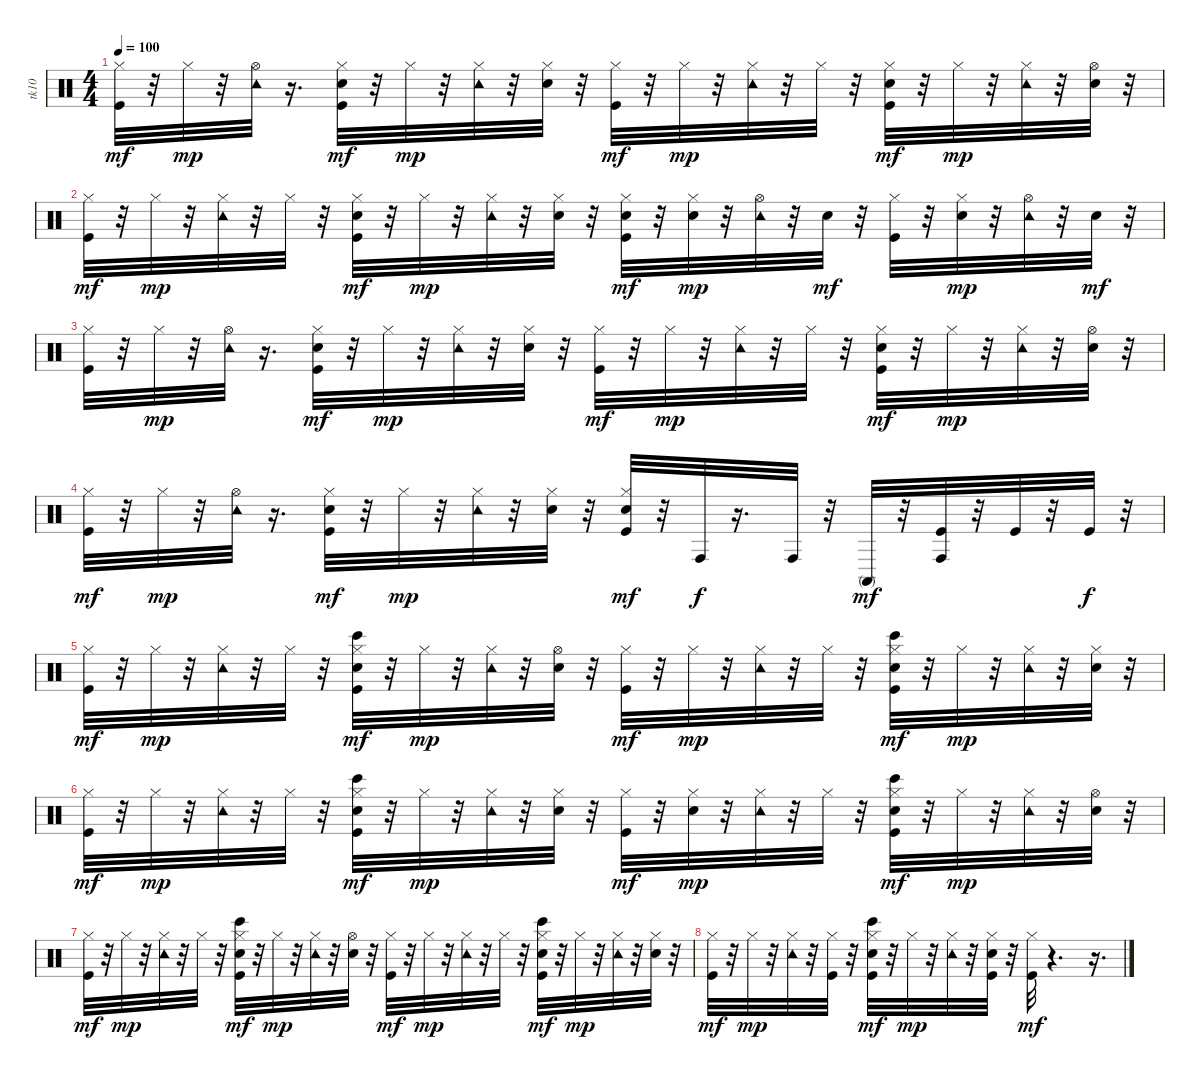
\track ("tk10" "tk10") {instrument percussion}
\staff {score}
\articulation defaults
\ts (4 4)
\tempo 100
\clef neutral
\ks c
("Kick (hit)" "Hi-Hat (closed)").32{dy mf} r.32 "Hi-Hat (closed)".32{dy mp} r.32 ("Hi-Hat (open)" "Tambourine (hit)").32 r.16{d} ("Kick (hit)" "Snare (hit) 2" "Hi-Hat (closed)").32{dy mf} r.32 "Hi-Hat (closed)".32{dy mp} r.32 ("Hi-Hat (closed)" "Tambourine (hit)").32 r.32 ("Snare (hit) 2" "Hi-Hat (closed)").32 r.32 ("Kick (hit)" "Hi-Hat (closed)").32{dy mf} r.32 "Hi-Hat (closed)".32{dy mp} r.32 ("Hi-Hat (closed)" "Tambourine (hit)").32 r.32 "Hi-Hat (closed)".32 r.32 ("Kick (hit)" "Snare (hit) 2" "Hi-Hat (closed)").32{dy mf} r.32 "Hi-Hat (closed)".32{dy mp} r.32 ("Hi-Hat (closed)" "Tambourine (hit)").32 r.32 ("Snare (hit) 2" "Hi-Hat (open)").32 r.32 |
("Kick (hit)" "Hi-Hat (closed)").32{dy mf} r.32 "Hi-Hat (closed)".32{dy mp} r.32 ("Hi-Hat (closed)" "Tambourine (hit)").32 r.32 "Hi-Hat (closed)".32 r.32 ("Kick (hit)" "Snare (hit) 2" "Hi-Hat (closed)").32{dy mf} r.32 "Hi-Hat (closed)".32{dy mp} r.32 ("Hi-Hat (closed)" "Tambourine (hit)").32 r.32 ("Snare (hit) 2" "Hi-Hat (closed)").32 r.32 ("Kick (hit)" "Snare (hit) 2" "Hi-Hat (closed)").32{dy mf} r.32 ("Snare (hit) 2" "Hi-Hat (closed)").32{dy mp} r.32 ("Hi-Hat (open)" "Tambourine (hit)").32 r.32 "Snare (hit) 2".32{dy mf} r.32 ("Kick (hit)" "Hi-Hat (closed)").32 r.32 ("Snare (hit) 2" "Hi-Hat (closed)").32{dy mp} r.32 ("Hi-Hat (open)" "Tambourine (hit)").32 r.32 "Snare (hit) 2".32{dy mf} r.32 |
("Kick (hit)" "Hi-Hat (closed)").32 r.32 "Hi-Hat (closed)".32{dy mp} r.32 ("Hi-Hat (open)" "Tambourine (hit)").32 r.16{d} ("Kick (hit)" "Snare (hit) 2" "Hi-Hat (closed)").32{dy mf} r.32 "Hi-Hat (closed)".32{dy mp} r.32 ("Hi-Hat (closed)" "Tambourine (hit)").32 r.32 ("Snare (hit) 2" "Hi-Hat (closed)").32 r.32 ("Kick (hit)" "Hi-Hat (closed)").32{dy mf} r.32 "Hi-Hat (closed)".32{dy mp} r.32 ("Hi-Hat (closed)" "Tambourine (hit)").32 r.32 "Hi-Hat (closed)".32 r.32 ("Kick (hit)" "Snare (hit) 2" "Hi-Hat (closed)").32{dy mf} r.32 "Hi-Hat (closed)".32{dy mp} r.32 ("Hi-Hat (closed)" "Tambourine (hit)").32 r.32 ("Snare (hit) 2" "Hi-Hat (open)").32 r.32 |
("Kick (hit)" "Hi-Hat (closed)").32{dy mf} r.32 "Hi-Hat (closed)".32{dy mp} r.32 ("Hi-Hat (open)" "Tambourine (hit)").32 r.16{d} ("Kick (hit)" "Snare (hit) 2" "Hi-Hat (closed)").32{dy mf} r.32 "Hi-Hat (closed)".32{dy mp} r.32 ("Hi-Hat (closed)" "Tambourine (hit)").32 r.32 ("Snare (hit) 2" "Hi-Hat (closed)").32 r.32 ("Kick (hit)" "Snare (hit) 2" "Hi-Hat (closed)").32{dy mf} r.32 "Conga high (hit)".32{dy f} r.16{d} "Conga high (hit)".32 r.32 "Conga high (mute)".32{dy mf} r.32 ("Kick (hit)" "Conga high (hit)").32 r.32 "Kick (hit)".32 r.32 "Kick (hit)".32{dy f} r.32 |
("Kick (hit)" "Hi-Hat (closed)").32{dy mf} r.32 "Hi-Hat (closed)".32{dy mp} r.32 ("Hi-Hat (closed)" "Tambourine (hit)").32 r.32 "Hi-Hat (closed)".32 r.32 ("Kick (hit)" "Snare (hit) 2" "Hi-Hat (closed)" "Bongo High (hit)").32{dy mf} r.32 "Hi-Hat (closed)".32{dy mp} r.32 ("Hi-Hat (closed)" "Tambourine (hit)").32 r.32 ("Snare (hit) 2" "Hi-Hat (open)").32 r.32 ("Kick (hit)" "Hi-Hat (closed)").32{dy mf} r.32 "Hi-Hat (closed)".32{dy mp} r.32 ("Hi-Hat (closed)" "Tambourine (hit)").32 r.32 "Hi-Hat (closed)".32 r.32 ("Kick (hit)" "Snare (hit) 2" "Hi-Hat (closed)" "Bongo High (hit)").32{dy mf} r.32 "Hi-Hat (closed)".32{dy mp} r.32 ("Hi-Hat (closed)" "Tambourine (hit)").32 r.32 ("Snare (hit) 2" "Hi-Hat (closed)").32 r.32 |
("Kick (hit)" "Hi-Hat (closed)").32{dy mf} r.32 "Hi-Hat (closed)".32{dy mp} r.32 ("Hi-Hat (closed)" "Tambourine (hit)").32 r.32 "Hi-Hat (closed)".32 r.32 ("Kick (hit)" "Snare (hit) 2" "Hi-Hat (closed)" "Bongo High (hit)").32{dy mf} r.32 "Hi-Hat (closed)".32{dy mp} r.32 ("Hi-Hat (closed)" "Tambourine (hit)").32 r.32 ("Snare (hit) 2" "Hi-Hat (closed)").32 r.32 ("Kick (hit)" "Hi-Hat (closed)").32{dy mf} r.32 ("Snare (hit) 2" "Hi-Hat (closed)").32{dy mp} r.32 ("Hi-Hat (closed)" "Tambourine (hit)").32 r.32 "Hi-Hat (closed)".32 r.32 ("Kick (hit)" "Snare (hit) 2" "Hi-Hat (closed)" "Bongo High (hit)").32{dy mf} r.32 "Hi-Hat (closed)".32{dy mp} r.32 ("Hi-Hat (closed)" "Tambourine (hit)").32 r.32 ("Snare (hit) 2" "Hi-Hat (open)").32 r.32 |
("Kick (hit)" "Hi-Hat (closed)").32{dy mf} r.32 "Hi-Hat (closed)".32{dy mp} r.32 ("Hi-Hat (closed)" "Tambourine (hit)").32 r.32 "Hi-Hat (closed)".32 r.32 ("Kick (hit)" "Snare (hit) 2" "Hi-Hat (closed)" "Bongo High (hit)").32{dy mf} r.32 "Hi-Hat (closed)".32{dy mp} r.32 ("Hi-Hat (closed)" "Tambourine (hit)").32 r.32 ("Snare (hit) 2" "Hi-Hat (open)").32 r.32 ("Kick (hit)" "Hi-Hat (closed)").32{dy mf} r.32 "Hi-Hat (closed)".32{dy mp} r.32 ("Hi-Hat (closed)" "Tambourine (hit)").32 r.32 "Hi-Hat (closed)".32 r.32 ("Kick (hit)" "Snare (hit) 2" "Hi-Hat (closed)" "Bongo High (hit)").32{dy mf} r.32 "Hi-Hat (closed)".32{dy mp} r.32 ("Hi-Hat (closed)" "Tambourine (hit)").32 r.32 ("Snare (hit) 2" "Hi-Hat (closed)").32 r.32 |
("Kick (hit)" "Hi-Hat (closed)").32{dy mf} r.32 "Hi-Hat (closed)".32{dy mp} r.32 ("Hi-Hat (closed)" "Tambourine (hit)").32 r.32 ("Kick (hit)" "Hi-Hat (closed)").32 r.32 ("Kick (hit)" "Snare (hit) 2" "Hi-Hat (closed)" "Bongo High (hit)").32{dy mf} r.32 "Hi-Hat (closed)".32{dy mp} r.32 ("Hi-Hat (closed)" "Tambourine (hit)").32 r.32 ("Kick (hit)" "Snare (hit) 2" "Hi-Hat (closed)").32 r.32 ("Kick (hit)" "Hi-Hat (closed)").32{dy mf} r.4{d} r.16{d}
